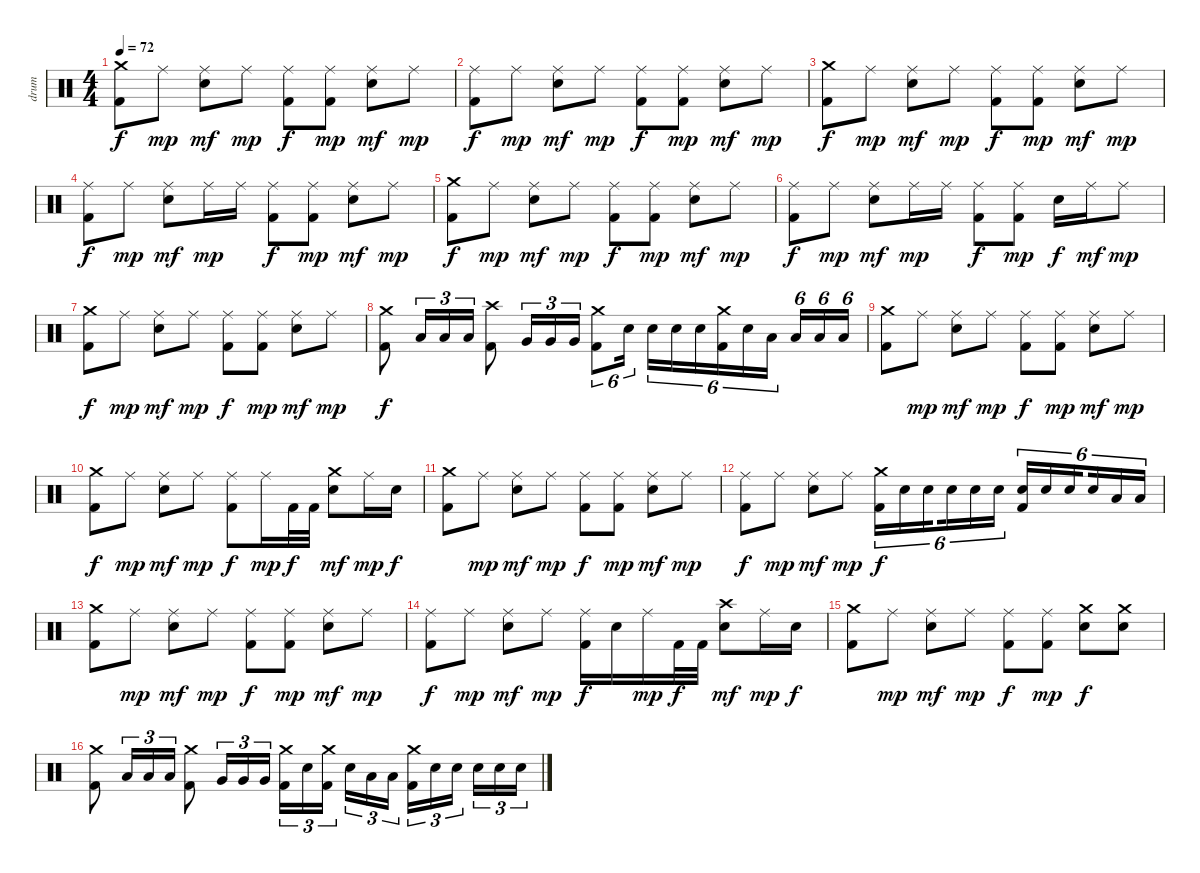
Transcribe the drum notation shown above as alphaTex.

\track ("drum" "drum") {instrument percussion}
\staff {score}
\articulation defaults
\ts (4 4)
\tempo 72
\clef neutral
\ks c
("Crash medium (hit)" "Kick (hit) 2").8{dy f} "Ride (middle)".8{dy mp} ("Ride (middle)" "Electric Snare (hit)").8{dy mf} "Ride (middle)".8{dy mp} ("Ride (middle)" "Kick (hit) 2").8{dy f} ("Ride (middle)" "Kick (hit) 2").8{dy mp} ("Ride (middle)" "Electric Snare (hit)").8{dy mf} "Ride (middle)".8{dy mp} |
("Ride (middle)" "Kick (hit) 2").8{dy f} "Ride (middle)".8{dy mp} ("Ride (middle)" "Electric Snare (hit)").8{dy mf} "Ride (middle)".8{dy mp} ("Ride (middle)" "Kick (hit) 2").8{dy f} ("Ride (middle)" "Kick (hit) 2").8{dy mp} ("Ride (middle)" "Electric Snare (hit)").8{dy mf} "Ride (middle)".8{dy mp} |
("Crash medium (hit)" "Kick (hit) 2").8{dy f} "Ride (middle)".8{dy mp} ("Ride (middle)" "Electric Snare (hit)").8{dy mf} "Ride (middle)".8{dy mp} ("Ride (middle)" "Kick (hit) 2").8{dy f} ("Ride (middle)" "Kick (hit) 2").8{dy mp} ("Ride (middle)" "Electric Snare (hit)").8{dy mf} "Ride (middle)".8{dy mp} |
("Ride (middle)" "Kick (hit) 2").8{dy f} "Ride (middle)".8{dy mp} ("Ride (middle)" "Electric Snare (hit)").8{dy mf} "Ride (middle)".16{dy mp} "Ride (middle)".16 ("Ride (middle)" "Kick (hit) 2").8{dy f} ("Ride (middle)" "Kick (hit) 2").8{dy mp} ("Ride (middle)" "Electric Snare (hit)").8{dy mf} "Ride (middle)".8{dy mp} |
("Crash medium (hit)" "Kick (hit) 2").8{dy f} "Ride (middle)".8{dy mp} ("Ride (middle)" "Electric Snare (hit)").8{dy mf} "Ride (middle)".8{dy mp} ("Ride (middle)" "Kick (hit) 2").8{dy f} ("Ride (middle)" "Kick (hit) 2").8{dy mp} ("Ride (middle)" "Electric Snare (hit)").8{dy mf} "Ride (middle)".8{dy mp} |
("Ride (middle)" "Kick (hit) 2").8{dy f} "Ride (middle)".8{dy mp} ("Ride (middle)" "Electric Snare (hit)").8{dy mf} "Ride (middle)".16{dy mp} "Ride (middle)".16 ("Ride (middle)" "Kick (hit) 2").8{dy f} ("Ride (middle)" "Kick (hit) 2").8{dy mp} "Electric Snare (hit)".16{dy f} "Ride (middle)".16{dy mf} "Ride (middle)".8{dy mp} |
("Crash medium (hit)" "Kick (hit) 2").8{dy f} "Ride (middle)".8{dy mp} ("Ride (middle)" "Electric Snare (hit)").8{dy mf} "Ride (middle)".8{dy mp} ("Ride (middle)" "Kick (hit) 2").8{dy f} ("Ride (middle)" "Kick (hit) 2").8{dy mp} ("Ride (middle)" "Electric Snare (hit)").8{dy mf} "Ride (middle)".8{dy mp} |
("Crash medium (hit)" "Kick (hit) 2").8{dy f} "Low Tom (hit)".16{tu (3 2)} "Low Tom (hit)".16{tu (3 2)} "Low Tom (hit)".16{tu (3 2)} ("Crash high (hit)" "Kick (hit) 2").8 "Very Low Tom (hit)".16{tu (3 2)} "Very Low Tom (hit)".16{tu (3 2)} "Very Low Tom (hit)".16{tu (3 2)} ("Crash medium (hit)" "Kick (hit) 2").8{tu (6 4)} "Electric Snare (hit)".16{tu (6 4) beam splitsecondary} "Electric Snare (hit)".16{tu (6 4)} "Electric Snare (hit)".16{tu (6 4)} "Electric Snare (hit)".16{tu (6 4)} ("Crash medium (hit)" "Kick (hit) 2").16{tu (6 4)} "Electric Snare (hit)".16{tu (6 4)} "Low Tom (hit)".16{tu (6 4) beam splitsecondary} "Low Tom (hit)".16{tu (6 4)} "Low Tom (hit)".16{tu (6 4)} "Low Tom (hit)".16{tu (6 4)} |
("Crash medium (hit)" "Kick (hit) 2").8 "Ride (middle)".8{dy mp} ("Ride (middle)" "Electric Snare (hit)").8{dy mf} "Ride (middle)".8{dy mp} ("Ride (middle)" "Kick (hit) 2").8{dy f} ("Ride (middle)" "Kick (hit) 2").8{dy mp} ("Ride (middle)" "Electric Snare (hit)").8{dy mf} "Ride (middle)".8{dy mp} |
("Crash medium (hit)" "Kick (hit) 2").8{dy f} "Ride (middle)".8{dy mp} ("Ride (middle)" "Electric Snare (hit)").8{dy mf} "Ride (middle)".8{dy mp} ("Ride (middle)" "Kick (hit) 2").8{dy f} "Ride (middle)".16{dy mp} "Kick (hit) 2".32{dy f} "Kick (hit) 2".32 ("Crash medium (hit)" "Electric Snare (hit)").8{dy mf} "Ride (middle)".16{dy mp} "Electric Snare (hit)".16{dy f} |
("Crash medium (hit)" "Kick (hit) 2").8 "Ride (middle)".8{dy mp} ("Ride (middle)" "Electric Snare (hit)").8{dy mf} "Ride (middle)".8{dy mp} ("Ride (middle)" "Kick (hit) 2").8{dy f} ("Ride (middle)" "Kick (hit) 2").8{dy mp} ("Ride (middle)" "Electric Snare (hit)").8{dy mf} "Ride (middle)".8{dy mp} |
("Ride (middle)" "Kick (hit) 2").8{dy f} "Ride (middle)".8{dy mp} ("Ride (middle)" "Electric Snare (hit)").8{dy mf} "Ride (middle)".8{dy mp} ("Crash medium (hit)" "Kick (hit) 2").16{tu (6 4) dy f} "Electric Snare (hit)".16{tu (6 4)} "Electric Snare (hit)".16{tu (6 4) beam splitsecondary} "Electric Snare (hit)".16{tu (6 4)} "Electric Snare (hit)".16{tu (6 4)} "Electric Snare (hit)".16{tu (6 4)} ("Electric Snare (hit)" "Kick (hit) 2").16{tu (6 4)} "Electric Snare (hit)".16{tu (6 4)} "Electric Snare (hit)".16{tu (6 4) beam splitsecondary} "Electric Snare (hit)".16{tu (6 4)} "Low Tom (hit)".16{tu (6 4)} "Low Tom (hit)".16{tu (6 4)} |
("Crash medium (hit)" "Kick (hit) 2").8 "Ride (middle)".8{dy mp} ("Ride (middle)" "Electric Snare (hit)").8{dy mf} "Ride (middle)".8{dy mp} ("Ride (middle)" "Kick (hit) 2").8{dy f} ("Ride (middle)" "Kick (hit) 2").8{dy mp} ("Ride (middle)" "Electric Snare (hit)").8{dy mf} "Ride (middle)".8{dy mp} |
("Ride (middle)" "Kick (hit) 2").8{dy f} "Ride (middle)".8{dy mp} ("Ride (middle)" "Electric Snare (hit)").8{dy mf} "Ride (middle)".8{dy mp} ("Ride (middle)" "Kick (hit) 2").16{dy f} "Electric Snare (hit)".16 "Ride (middle)".16{dy mp} "Kick (hit) 2".32{dy f} "Kick (hit) 2".32 ("Crash high (hit)" "Electric Snare (hit)").8{dy mf} "Ride (middle)".16{dy mp} "Electric Snare (hit)".16{dy f} |
("Crash medium (hit)" "Kick (hit) 2").8 "Ride (middle)".8{dy mp} ("Ride (middle)" "Electric Snare (hit)").8{dy mf} "Ride (middle)".8{dy mp} ("Ride (middle)" "Kick (hit) 2").8{dy f} ("Ride (middle)" "Kick (hit) 2").8{dy mp} ("Crash medium (hit)" "Electric Snare (hit)").8{dy f} ("Crash medium (hit)" "Electric Snare (hit)").8 |
("Crash medium (hit)" "Kick (hit) 2").8 "Low Tom (hit)".16{tu (3 2)} "Low Tom (hit)".16{tu (3 2)} "Low Tom (hit)".16{tu (3 2)} ("Crash medium (hit)" "Kick (hit) 2").8 "Very Low Tom (hit)".16{tu (3 2)} "Very Low Tom (hit)".16{tu (3 2)} "Very Low Tom (hit)".16{tu (3 2)} ("Crash medium (hit)" "Kick (hit) 2").16{tu (3 2)} "Electric Snare (hit)".16{tu (3 2)} ("Crash medium (hit)" "Kick (hit) 2").16{tu (3 2) beam splitsecondary} "Electric Snare (hit)".16{tu (3 2)} "Low Tom (hit)".16{tu (3 2)} "Low Tom (hit)".16{tu (3 2)} ("Crash medium (hit)" "Kick (hit) 2").16{tu (3 2)} "Electric Snare (hit)".16{tu (3 2)} "Electric Snare (hit)".16{tu (3 2) beam splitsecondary} "Electric Snare (hit)".16{tu (3 2)} "Electric Snare (hit)".16{tu (3 2)} "Electric Snare (hit)".16{tu (3 2)}
